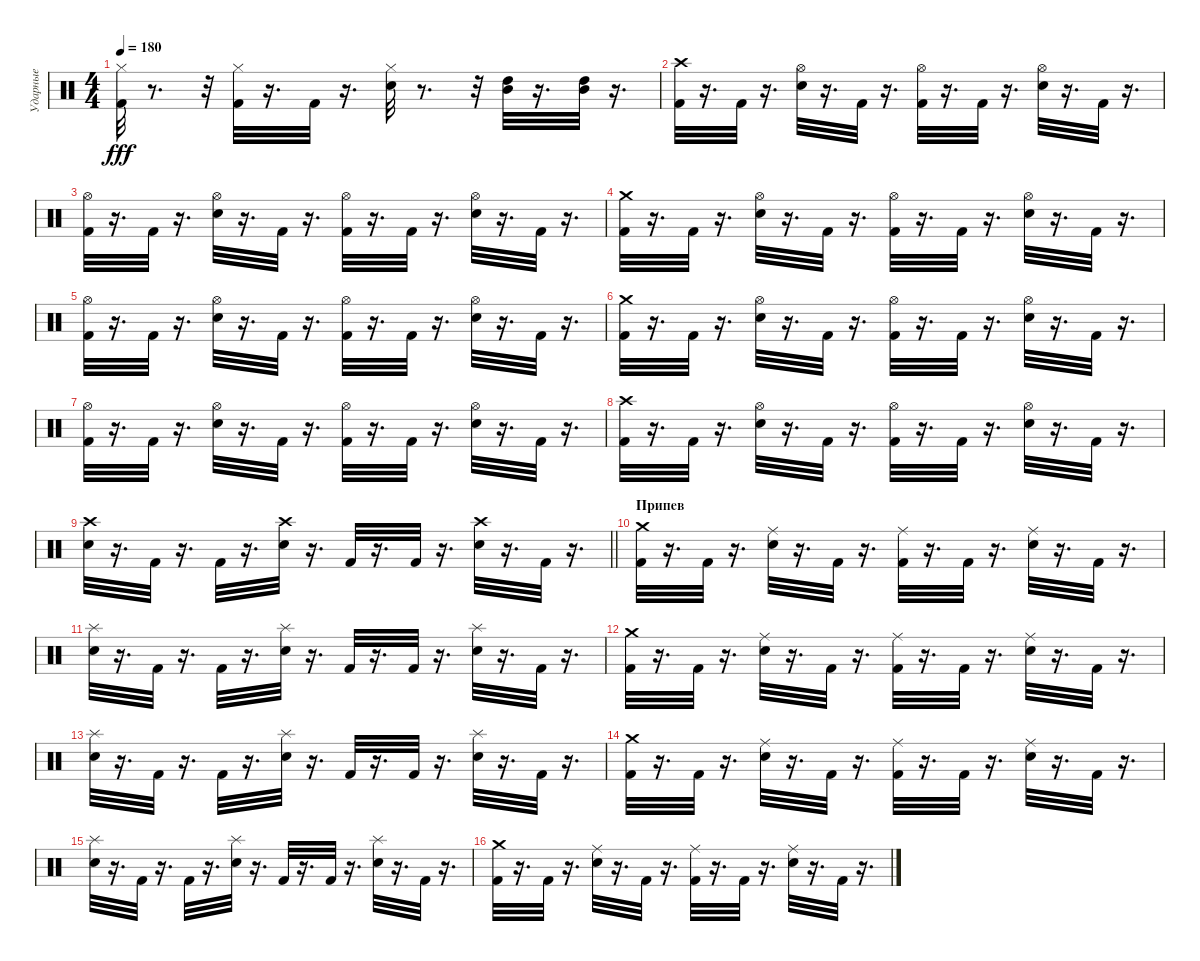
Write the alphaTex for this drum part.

\track ("Ударные" "Ударные") {instrument percussion}
\staff {score}
\articulation defaults
\ts (4 4)
\tempo 180
\clef neutral
\ks c
("Kick (hit) 2" "Hi-Hat (closed)").32{dy fff} r.8{d} r.32 ("Hi-Hat (closed)" "Kick (hit) 2").32 r.16{d} "Kick (hit) 2".32 r.16{d} ("Snare (hit) 2" "Hi-Hat (closed)").32 r.8{d} r.32 ("High Tom (hit)" "Mid Tom (hit)").32 r.16{d} ("Mid Tom (hit)" "High Tom (hit)").32 r.16{d} |
("Kick (hit) 2" "Crash high (hit)").32 r.16{d} "Kick (hit) 2".32 r.16{d} ("Snare (hit) 2" "Hi-Hat (open)").32 r.16{d} "Kick (hit) 2".32 r.16{d} ("Kick (hit) 2" "Hi-Hat (open)").32 r.16{d} "Kick (hit) 2".32 r.16{d} ("Snare (hit) 2" "Hi-Hat (open)").32 r.16{d} "Kick (hit) 2".32 r.16{d} |
("Hi-Hat (open)" "Kick (hit) 2").32 r.16{d} "Kick (hit) 2".32 r.16{d} ("Snare (hit) 2" "Hi-Hat (open)").32 r.16{d} "Kick (hit) 2".32 r.16{d} ("Hi-Hat (open)" "Kick (hit) 2").32 r.16{d} "Kick (hit) 2".32 r.16{d} ("Hi-Hat (open)" "Snare (hit) 2").32 r.16{d} "Kick (hit) 2".32 r.16{d} |
("Crash medium (hit)" "Kick (hit) 2").32 r.16{d} "Kick (hit) 2".32 r.16{d} ("Hi-Hat (open)" "Snare (hit) 2").32 r.16{d} "Kick (hit) 2".32 r.16{d} ("Kick (hit) 2" "Hi-Hat (open)").32 r.16{d} "Kick (hit) 2".32 r.16{d} ("Hi-Hat (open)" "Snare (hit) 2").32 r.16{d} "Kick (hit) 2".32 r.16{d} |
("Kick (hit) 2" "Hi-Hat (open)").32 r.16{d} "Kick (hit) 2".32 r.16{d} ("Snare (hit) 2" "Hi-Hat (open)").32 r.16{d} "Kick (hit) 2".32 r.16{d} ("Kick (hit) 2" "Hi-Hat (open)").32 r.16{d} "Kick (hit) 2".32 r.16{d} ("Hi-Hat (open)" "Snare (hit) 2").32 r.16{d} "Kick (hit) 2".32 r.16{d} |
("Crash medium (hit)" "Kick (hit) 2").32 r.16{d} "Kick (hit) 2".32 r.16{d} ("Snare (hit) 2" "Hi-Hat (open)").32 r.16{d} "Kick (hit) 2".32 r.16{d} ("Kick (hit) 2" "Hi-Hat (open)").32 r.16{d} "Kick (hit) 2".32 r.16{d} ("Snare (hit) 2" "Hi-Hat (open)").32 r.16{d} "Kick (hit) 2".32 r.16{d} |
("Kick (hit) 2" "Hi-Hat (open)").32 r.16{d} "Kick (hit) 2".32 r.16{d} ("Hi-Hat (open)" "Snare (hit) 2").32 r.16{d} "Kick (hit) 2".32 r.16{d} ("Hi-Hat (open)" "Kick (hit) 2").32 r.16{d} "Kick (hit) 2".32 r.16{d} ("Hi-Hat (open)" "Snare (hit) 2").32 r.16{d} "Kick (hit) 2".32 r.16{d} |
("Crash high (hit)" "Kick (hit) 2").32 r.16{d} "Kick (hit) 2".32 r.16{d} ("Snare (hit) 2" "Hi-Hat (open)").32 r.16{d} "Kick (hit) 2".32 r.16{d} ("Kick (hit) 2" "Hi-Hat (open)").32 r.16{d} "Kick (hit) 2".32 r.16{d} ("Snare (hit) 2" "Hi-Hat (open)").32 r.16{d} "Kick (hit) 2".32 r.16{d} |
\barLineRight lightlight
("Snare (hit) 2" "Crash high (hit)").32 r.16{d} "Kick (hit) 2".32 r.16{d} "Kick (hit) 2".32 r.16{d} ("Snare (hit) 2" "Crash high (hit)").32 r.16{d} "Kick (hit) 2".32 r.16{d} "Kick (hit) 2".32 r.16{d} ("Snare (hit) 2" "Crash high (hit)").32 r.16{d} "Kick (hit) 2".32 r.16{d} |
\section ("" "Припев")
("Crash medium (hit)" "Kick (hit) 2").32 r.16{d} "Kick (hit) 2".32 r.16{d} ("Ride (middle)" "Snare (hit) 2").32 r.16{d} "Kick (hit) 2".32 r.16{d} ("Kick (hit) 2" "Ride (middle)").32 r.16{d} "Kick (hit) 2".32 r.16{d} ("Snare (hit) 2" "Ride (middle)").32 r.16{d} "Kick (hit) 2".32 r.16{d} |
("Snare (hit) 2" "Splash (hit)").32 r.16{d} "Kick (hit) 2".32 r.16{d} "Kick (hit) 2".32 r.16{d} ("Splash (hit)" "Snare (hit) 2").32 r.16{d} "Kick (hit) 2".32 r.16{d} "Kick (hit) 2".32 r.16{d} ("Splash (hit)" "Snare (hit) 2").32 r.16{d} "Kick (hit) 2".32 r.16{d} |
("Crash medium (hit)" "Kick (hit) 2").32 r.16{d} "Kick (hit) 2".32 r.16{d} ("Ride (middle)" "Snare (hit) 2").32 r.16{d} "Kick (hit) 2".32 r.16{d} ("Ride (middle)" "Kick (hit) 2").32 r.16{d} "Kick (hit) 2".32 r.16{d} ("Snare (hit) 2" "Ride (middle)").32 r.16{d} "Kick (hit) 2".32 r.16{d} |
("Snare (hit) 2" "Splash (hit)").32 r.16{d} "Kick (hit) 2".32 r.16{d} "Kick (hit) 2".32 r.16{d} ("Splash (hit)" "Snare (hit) 2").32 r.16{d} "Kick (hit) 2".32 r.16{d} "Kick (hit) 2".32 r.16{d} ("Snare (hit) 2" "Splash (hit)").32 r.16{d} "Kick (hit) 2".32 r.16{d} |
("Kick (hit) 2" "Crash medium (hit)").32 r.16{d} "Kick (hit) 2".32 r.16{d} ("Snare (hit) 2" "Ride (middle)").32 r.16{d} "Kick (hit) 2".32 r.16{d} ("Kick (hit) 2" "Ride (middle)").32 r.16{d} "Kick (hit) 2".32 r.16{d} ("Snare (hit) 2" "Ride (middle)").32 r.16{d} "Kick (hit) 2".32 r.16{d} |
("Splash (hit)" "Snare (hit) 2").32 r.16{d} "Kick (hit) 2".32 r.16{d} "Kick (hit) 2".32 r.16{d} ("Splash (hit)" "Snare (hit) 2").32 r.16{d} "Kick (hit) 2".32 r.16{d} "Kick (hit) 2".32 r.16{d} ("Snare (hit) 2" "Splash (hit)").32 r.16{d} "Kick (hit) 2".32 r.16{d} |
("Crash medium (hit)" "Kick (hit) 2").32 r.16{d} "Kick (hit) 2".32 r.16{d} ("Ride (middle)" "Snare (hit) 2").32 r.16{d} "Kick (hit) 2".32 r.16{d} ("Ride (middle)" "Kick (hit) 2").32 r.16{d} "Kick (hit) 2".32 r.16{d} ("Snare (hit) 2" "Ride (middle)").32 r.16{d} "Kick (hit) 2".32 r.16{d}
